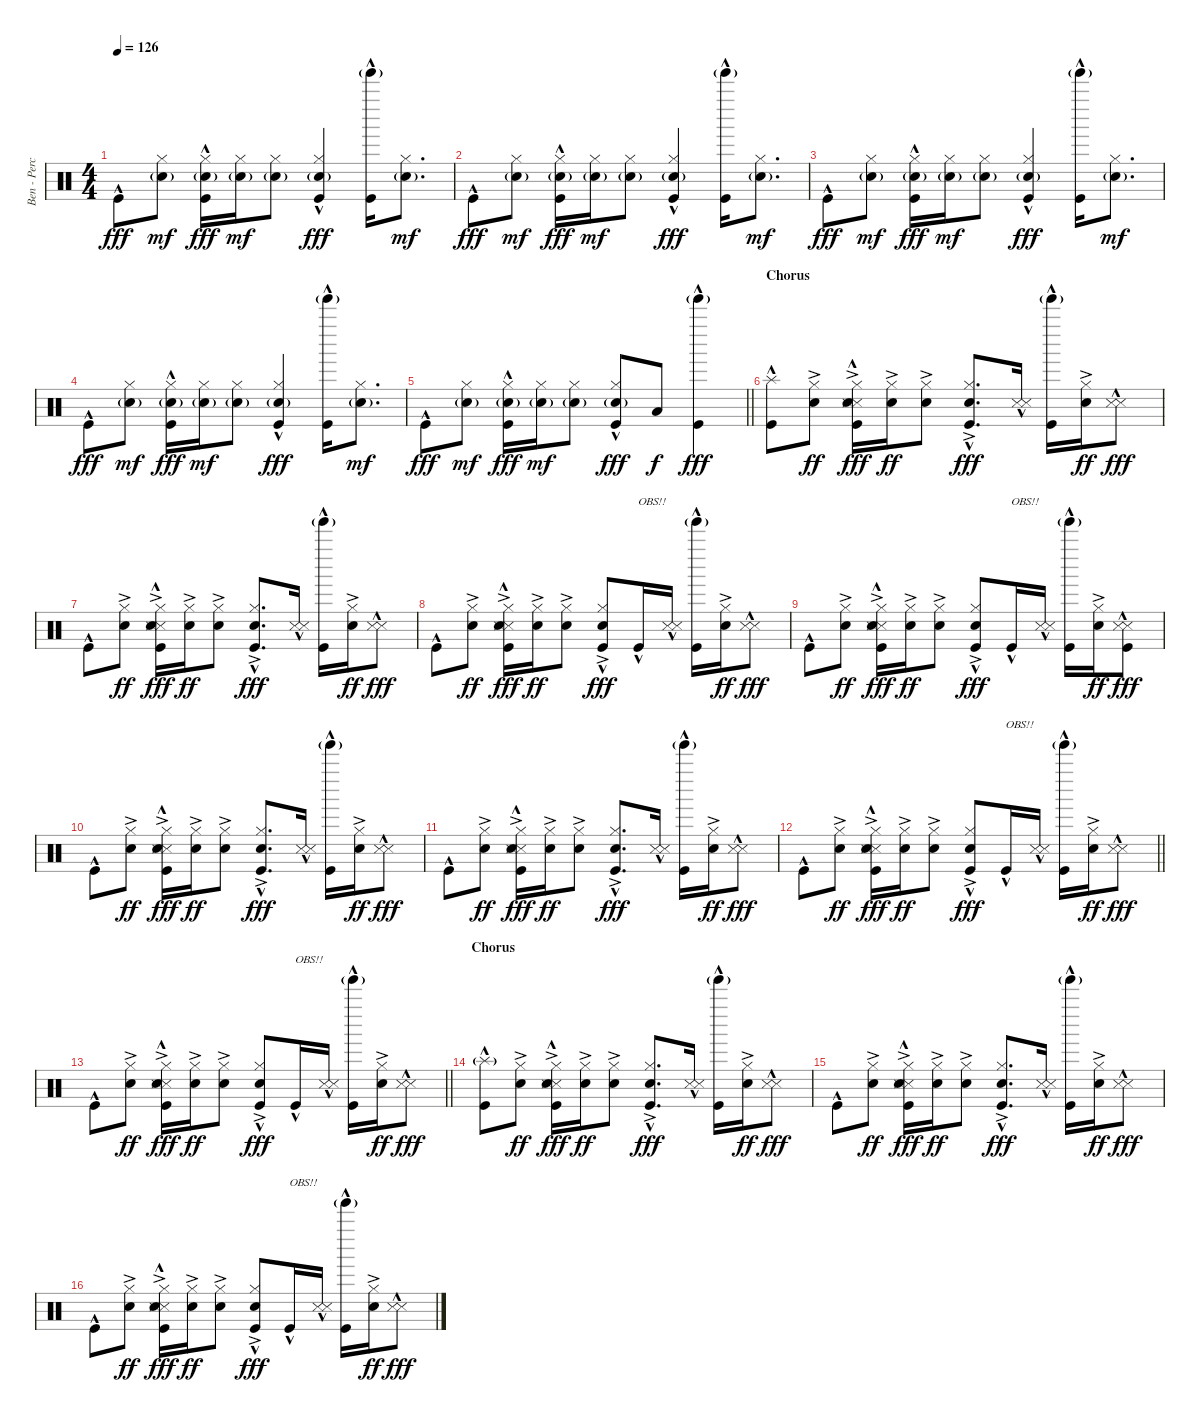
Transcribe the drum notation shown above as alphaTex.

\track ("Ben - Percussion" "Ben - Perc") {instrument percussion}
\staff {score}
\articulation defaults
\ts (4 4)
\tempo 126
\clef neutral
\ks c "Kick (hit)"{hac}.8{dy fff}
("Hi-Hat (closed)" "Snare (hit) 2"{g}).8{dy mf} ("Hi-Hat (closed)" "Snare (hit) 2"{g} "Kick (hit)"{hac}).16{dy fff} ("Hi-Hat (closed)" "Snare (hit) 2"{g}).16{dy mf} ("Hi-Hat (closed)" "Snare (hit) 2"{g}).8 ("Hi-Hat (closed)" "Snare (hit) 2"{g} "Kick (hit)"{hac}).4{dy fff} ("Tinkle Bell (hit)"{g} "Kick (hit)"{hac}).16 ("Hi-Hat (closed)" "Snare (hit) 2"{g}).8{d dy mf} |
"Kick (hit)"{hac}.8{dy fff} ("Hi-Hat (closed)" "Snare (hit) 2"{g}).8{dy mf} ("Hi-Hat (closed)" "Snare (hit) 2"{g} "Kick (hit)"{hac}).16{dy fff} ("Hi-Hat (closed)" "Snare (hit) 2"{g}).16{dy mf} ("Hi-Hat (closed)" "Snare (hit) 2"{g}).8 ("Hi-Hat (closed)" "Snare (hit) 2"{g} "Kick (hit)"{hac}).4{dy fff} ("Tinkle Bell (hit)"{g} "Kick (hit)"{hac}).16 ("Hi-Hat (closed)" "Snare (hit) 2"{g}).8{d dy mf} |
"Kick (hit)"{hac}.8{dy fff} ("Hi-Hat (closed)" "Snare (hit) 2"{g}).8{dy mf} ("Hi-Hat (closed)" "Snare (hit) 2"{g} "Kick (hit)"{hac}).16{dy fff} ("Hi-Hat (closed)" "Snare (hit) 2"{g}).16{dy mf} ("Hi-Hat (closed)" "Snare (hit) 2"{g}).8 ("Hi-Hat (closed)" "Snare (hit) 2"{g} "Kick (hit)"{hac}).4{dy fff} ("Tinkle Bell (hit)"{g} "Kick (hit)"{hac}).16 ("Hi-Hat (closed)" "Snare (hit) 2"{g}).8{d dy mf} |
"Kick (hit)"{hac}.8{dy fff} ("Hi-Hat (closed)" "Snare (hit) 2"{g}).8{dy mf} ("Hi-Hat (closed)" "Snare (hit) 2"{g} "Kick (hit)"{hac}).16{dy fff} ("Hi-Hat (closed)" "Snare (hit) 2"{g}).16{dy mf} ("Hi-Hat (closed)" "Snare (hit) 2"{g}).8 ("Hi-Hat (closed)" "Snare (hit) 2"{g} "Kick (hit)"{hac}).4{dy fff} ("Tinkle Bell (hit)"{g} "Kick (hit)"{hac}).16 ("Hi-Hat (closed)" "Snare (hit) 2"{g}).8{d dy mf} |
\barLineRight lightlight "Kick (hit)"{hac}.8{dy fff}
("Hi-Hat (closed)" "Snare (hit) 2"{g}).8{dy mf} ("Hi-Hat (closed)" "Snare (hit) 2"{g} "Kick (hit)"{hac}).16{dy fff} ("Hi-Hat (closed)" "Snare (hit) 2"{g}).16{dy mf} ("Hi-Hat (closed)" "Snare (hit) 2"{g}).8 ("Hi-Hat (closed)" "Snare (hit) 2"{g} "Kick (hit)"{hac}).8{dy fff} "Low Tom (hit)".8{dy f} ("Tinkle Bell (hit)"{g} "Kick (hit)"{hac}).4{dy fff} |
\section ("" "Chorus")
("Splash (hit)" "Kick (hit)"{hac}).8 ("Hi-Hat (closed)"{ac} "Snare (hit) 2").8{dy ff} ("Hi-Hat (closed)"{ac} "Metronome (hit)"{hac} "Snare (side stick) 3"{hac} "Snare (hit) 2" "Kick (hit)"{hac}).16{dy fff} ("Hi-Hat (closed)"{ac} "Snare (hit) 2").16{dy ff} ("Hi-Hat (closed)"{ac} "Snare (hit) 2").8 ("Hi-Hat (closed)"{ac} "Snare (hit) 2" "Kick (hit)"{hac}).8{d dy fff} ("Metronome (hit)"{hac} "Snare (side stick) 3"{hac}).16 ("Tinkle Bell (hit)"{g} "Kick (hit)"{hac}).16 ("Hi-Hat (closed)"{ac} "Snare (hit) 2").16{dy ff} ("Metronome (hit)"{hac} "Snare (side stick) 3"{hac}).8{dy fff} |
"Kick (hit)"{hac}.8 ("Hi-Hat (closed)"{ac} "Snare (hit) 2").8{dy ff} ("Hi-Hat (closed)"{ac} "Metronome (hit)"{hac} "Snare (side stick) 3"{hac} "Snare (hit) 2" "Kick (hit)"{hac}).16{dy fff} ("Hi-Hat (closed)"{ac} "Snare (hit) 2").16{dy ff} ("Hi-Hat (closed)"{ac} "Snare (hit) 2").8 ("Hi-Hat (closed)"{ac} "Snare (hit) 2" "Kick (hit)"{hac}).8{d dy fff} ("Metronome (hit)"{hac} "Snare (side stick) 3"{hac}).16 ("Tinkle Bell (hit)"{g} "Kick (hit)"{hac}).16 ("Hi-Hat (closed)"{ac} "Snare (hit) 2").16{dy ff} ("Metronome (hit)"{hac} "Snare (side stick) 3"{hac}).8{dy fff} |
"Kick (hit)"{hac}.8 ("Hi-Hat (closed)"{ac} "Snare (hit) 2").8{dy ff} ("Hi-Hat (closed)"{ac} "Metronome (hit)"{hac} "Snare (side stick) 3"{hac} "Snare (hit) 2" "Kick (hit)"{hac}).16{dy fff} ("Hi-Hat (closed)"{ac} "Snare (hit) 2").16{dy ff} ("Hi-Hat (closed)"{ac} "Snare (hit) 2").8 ("Hi-Hat (closed)"{ac} "Snare (hit) 2" "Kick (hit)"{hac}).8{dy fff} "Kick (hit)"{hac}.16{txt "OBS!!"} ("Metronome (hit)"{hac} "Snare (side stick) 3"{hac}).16 ("Tinkle Bell (hit)"{g} "Kick (hit)"{hac}).16 ("Hi-Hat (closed)"{ac} "Snare (hit) 2").16{dy ff} ("Metronome (hit)"{hac} "Snare (side stick) 3"{hac}).8{dy fff} |
"Kick (hit)"{hac}.8 ("Hi-Hat (closed)"{ac} "Snare (hit) 2").8{dy ff} ("Hi-Hat (closed)"{ac} "Metronome (hit)"{hac} "Snare (side stick) 3"{hac} "Snare (hit) 2" "Kick (hit)"{hac}).16{dy fff} ("Hi-Hat (closed)"{ac} "Snare (hit) 2").16{dy ff} ("Hi-Hat (closed)"{ac} "Snare (hit) 2").8 ("Hi-Hat (closed)"{ac} "Snare (hit) 2" "Kick (hit)"{hac}).8{dy fff} "Kick (hit)"{hac}.16{txt "OBS!!"} ("Metronome (hit)"{hac} "Snare (side stick) 3"{hac}).16 ("Tinkle Bell (hit)"{g} "Kick (hit)"{hac}).16 ("Hi-Hat (closed)"{ac} "Snare (hit) 2").16{dy ff} ("Metronome (hit)"{hac} "Snare (side stick) 3"{hac} "Kick (hit)"{hac}).8{dy fff} |
"Kick (hit)"{hac}.8 ("Hi-Hat (closed)"{ac} "Snare (hit) 2").8{dy ff} ("Hi-Hat (closed)"{ac} "Metronome (hit)"{hac} "Snare (side stick) 3"{hac} "Snare (hit) 2" "Kick (hit)"{hac}).16{dy fff} ("Hi-Hat (closed)"{ac} "Snare (hit) 2").16{dy ff} ("Hi-Hat (closed)"{ac} "Snare (hit) 2").8 ("Hi-Hat (closed)"{ac} "Snare (hit) 2" "Kick (hit)"{hac}).8{d dy fff} ("Metronome (hit)"{hac} "Snare (side stick) 3"{hac}).16 ("Tinkle Bell (hit)"{g} "Kick (hit)"{hac}).16 ("Hi-Hat (closed)"{ac} "Snare (hit) 2").16{dy ff} ("Metronome (hit)"{hac} "Snare (side stick) 3"{hac}).8{dy fff} |
"Kick (hit)"{hac}.8 ("Hi-Hat (closed)"{ac} "Snare (hit) 2").8{dy ff} ("Hi-Hat (closed)"{ac} "Metronome (hit)"{hac} "Snare (side stick) 3"{hac} "Snare (hit) 2" "Kick (hit)"{hac}).16{dy fff} ("Hi-Hat (closed)"{ac} "Snare (hit) 2").16{dy ff} ("Hi-Hat (closed)"{ac} "Snare (hit) 2").8 ("Hi-Hat (closed)"{ac} "Snare (hit) 2" "Kick (hit)"{hac}).8{d dy fff} ("Metronome (hit)"{hac} "Snare (side stick) 3"{hac}).16 ("Tinkle Bell (hit)"{g} "Kick (hit)"{hac}).16 ("Hi-Hat (closed)"{ac} "Snare (hit) 2").16{dy ff} ("Metronome (hit)"{hac} "Snare (side stick) 3"{hac}).8{dy fff} |
\barLineRight lightlight "Kick (hit)"{hac}.8
("Hi-Hat (closed)"{ac} "Snare (hit) 2").8{dy ff} ("Hi-Hat (closed)"{ac} "Metronome (hit)"{hac} "Snare (side stick) 3"{hac} "Snare (hit) 2" "Kick (hit)"{hac}).16{dy fff} ("Hi-Hat (closed)"{ac} "Snare (hit) 2").16{dy ff} ("Hi-Hat (closed)"{ac} "Snare (hit) 2").8 ("Hi-Hat (closed)"{ac} "Snare (hit) 2" "Kick (hit)"{hac}).8{dy fff} "Kick (hit)"{hac}.16{txt "OBS!!"} ("Metronome (hit)"{hac} "Snare (side stick) 3"{hac}).16 ("Tinkle Bell (hit)"{g} "Kick (hit)"{hac}).16 ("Hi-Hat (closed)"{ac} "Snare (hit) 2").16{dy ff} ("Metronome (hit)"{hac} "Snare (side stick) 3"{hac}).8{dy fff} |
\barLineRight lightlight "Kick (hit)"{hac}.8
("Hi-Hat (closed)"{ac} "Snare (hit) 2").8{dy ff} ("Hi-Hat (closed)"{ac} "Metronome (hit)"{hac} "Snare (side stick) 3"{hac} "Snare (hit) 2" "Kick (hit)"{hac}).16{dy fff} ("Hi-Hat (closed)"{ac} "Snare (hit) 2").16{dy ff} ("Hi-Hat (closed)"{ac} "Snare (hit) 2").8 ("Hi-Hat (closed)"{ac} "Snare (hit) 2" "Kick (hit)"{hac}).8{dy fff} "Kick (hit)"{hac}.16{txt "OBS!!"} ("Metronome (hit)"{hac} "Snare (side stick) 3"{hac}).16 ("Tinkle Bell (hit)"{g} "Kick (hit)"{hac}).16 ("Hi-Hat (closed)"{ac} "Snare (hit) 2").16{dy ff} ("Metronome (hit)"{hac} "Snare (side stick) 3"{hac}).8{dy fff} |
\section ("" "Chorus")
("Splash (hit)"{g} "Kick (hit)"{hac}).8 ("Hi-Hat (closed)"{ac} "Snare (hit) 2").8{dy ff} ("Hi-Hat (closed)"{ac} "Metronome (hit)"{hac} "Snare (side stick) 3"{hac} "Snare (hit) 2" "Kick (hit)"{hac}).16{dy fff} ("Hi-Hat (closed)"{ac} "Snare (hit) 2").16{dy ff} ("Hi-Hat (closed)"{ac} "Snare (hit) 2").8 ("Hi-Hat (closed)"{ac} "Snare (hit) 2" "Kick (hit)"{hac}).8{d dy fff} ("Metronome (hit)"{hac} "Snare (side stick) 3"{hac}).16 ("Tinkle Bell (hit)"{g} "Kick (hit)"{hac}).16 ("Hi-Hat (closed)"{ac} "Snare (hit) 2").16{dy ff} ("Metronome (hit)"{hac} "Snare (side stick) 3"{hac}).8{dy fff} |
"Kick (hit)"{hac}.8 ("Hi-Hat (closed)"{ac} "Snare (hit) 2").8{dy ff} ("Hi-Hat (closed)"{ac} "Metronome (hit)"{hac} "Snare (side stick) 3"{hac} "Snare (hit) 2" "Kick (hit)"{hac}).16{dy fff} ("Hi-Hat (closed)"{ac} "Snare (hit) 2").16{dy ff} ("Hi-Hat (closed)"{ac} "Snare (hit) 2").8 ("Hi-Hat (closed)"{ac} "Snare (hit) 2" "Kick (hit)"{hac}).8{d dy fff} ("Metronome (hit)"{hac} "Snare (side stick) 3"{hac}).16 ("Tinkle Bell (hit)"{g} "Kick (hit)"{hac}).16 ("Hi-Hat (closed)"{ac} "Snare (hit) 2").16{dy ff} ("Metronome (hit)"{hac} "Snare (side stick) 3"{hac}).8{dy fff} |
"Kick (hit)"{hac}.8 ("Hi-Hat (closed)"{ac} "Snare (hit) 2").8{dy ff} ("Hi-Hat (closed)"{ac} "Metronome (hit)"{hac} "Snare (side stick) 3"{hac} "Snare (hit) 2" "Kick (hit)"{hac}).16{dy fff} ("Hi-Hat (closed)"{ac} "Snare (hit) 2").16{dy ff} ("Hi-Hat (closed)"{ac} "Snare (hit) 2").8 ("Hi-Hat (closed)"{ac} "Snare (hit) 2" "Kick (hit)"{hac}).8{dy fff} "Kick (hit)"{hac}.16{txt "OBS!!"} ("Metronome (hit)"{hac} "Snare (side stick) 3"{hac}).16 ("Tinkle Bell (hit)"{g} "Kick (hit)"{hac}).16 ("Hi-Hat (closed)"{ac} "Snare (hit) 2").16{dy ff} ("Metronome (hit)"{hac} "Snare (side stick) 3"{hac}).8{dy fff}
